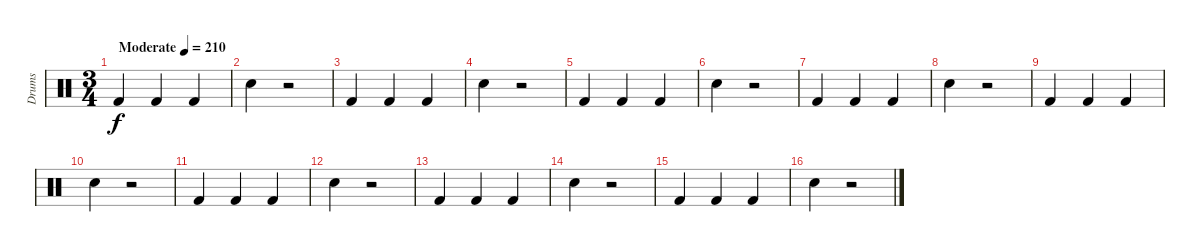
\track ("Drums" "Drums") {instrument percussion}
\staff {score}
\articulation defaults
\ts (3 4)
\tempo (210 "Moderate")
\clef neutral
\ks c "Kick (hit) 2".4{dy f} "Kick (hit) 2".4 "Kick (hit) 2".4
|
"Electric Snare (hit)".4 r.2 |
"Kick (hit) 2".4 "Kick (hit) 2".4 "Kick (hit) 2".4 |
"Electric Snare (hit)".4 r.2 |
"Kick (hit) 2".4 "Kick (hit) 2".4 "Kick (hit) 2".4 |
"Electric Snare (hit)".4 r.2 |
"Kick (hit) 2".4 "Kick (hit) 2".4 "Kick (hit) 2".4 |
"Electric Snare (hit)".4 r.2 |
"Kick (hit) 2".4 "Kick (hit) 2".4 "Kick (hit) 2".4 |
"Electric Snare (hit)".4 r.2 |
"Kick (hit) 2".4 "Kick (hit) 2".4 "Kick (hit) 2".4 |
"Electric Snare (hit)".4 r.2 |
"Kick (hit) 2".4 "Kick (hit) 2".4 "Kick (hit) 2".4 |
"Electric Snare (hit)".4 r.2 |
"Kick (hit) 2".4 "Kick (hit) 2".4 "Kick (hit) 2".4 |
"Electric Snare (hit)".4 r.2
